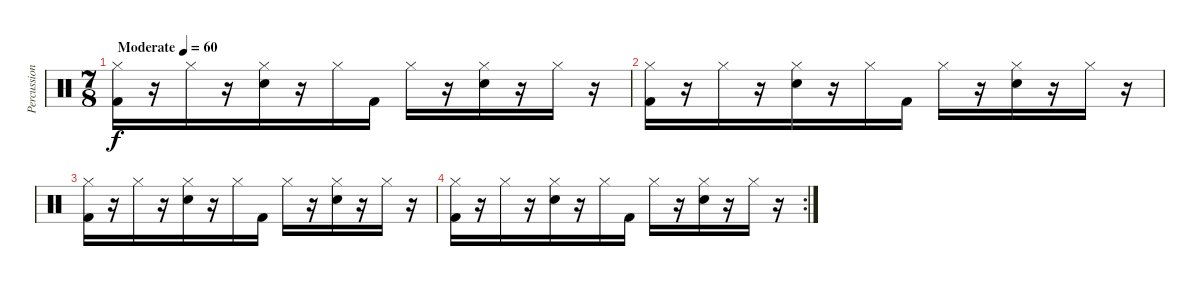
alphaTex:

\track ("Percussion" "Percussion") {instrument percussion}
\staff {score}
\articulation defaults
\ts (7 8)
\tempo (60 "Moderate")
\clef neutral
\ks c
("Hi-Hat (closed)" "Kick (hit) 2").16{dy f} r.16 "Hi-Hat (closed)".16 r.16 ("Hi-Hat (closed)" "Electric Snare (hit)").16 r.16 "Hi-Hat (closed)".16 "Kick (hit) 2".16 "Hi-Hat (closed)".16 r.16 ("Hi-Hat (closed)" "Electric Snare (hit)").16 r.16 "Hi-Hat (closed)".16 r.16 |
("Hi-Hat (closed)" "Kick (hit) 2").16 r.16 "Hi-Hat (closed)".16 r.16 ("Hi-Hat (closed)" "Electric Snare (hit)").16 r.16 "Hi-Hat (closed)".16 "Kick (hit) 2".16 "Hi-Hat (closed)".16 r.16 ("Hi-Hat (closed)" "Electric Snare (hit)").16 r.16 "Hi-Hat (closed)".16 r.16 |
("Hi-Hat (closed)" "Kick (hit) 2").16 r.16 "Hi-Hat (closed)".16 r.16 ("Hi-Hat (closed)" "Electric Snare (hit)").16 r.16 "Hi-Hat (closed)".16 "Kick (hit) 2".16 "Hi-Hat (closed)".16 r.16 ("Hi-Hat (closed)" "Electric Snare (hit)").16 r.16 "Hi-Hat (closed)".16 r.16 |
\rc 2
("Hi-Hat (closed)" "Kick (hit) 2").16 r.16 "Hi-Hat (closed)".16 r.16 ("Hi-Hat (closed)" "Electric Snare (hit)").16 r.16 "Hi-Hat (closed)".16 "Kick (hit) 2".16 "Hi-Hat (closed)".16 r.16 ("Hi-Hat (closed)" "Electric Snare (hit)").16 r.16 "Hi-Hat (closed)".16 r.16
